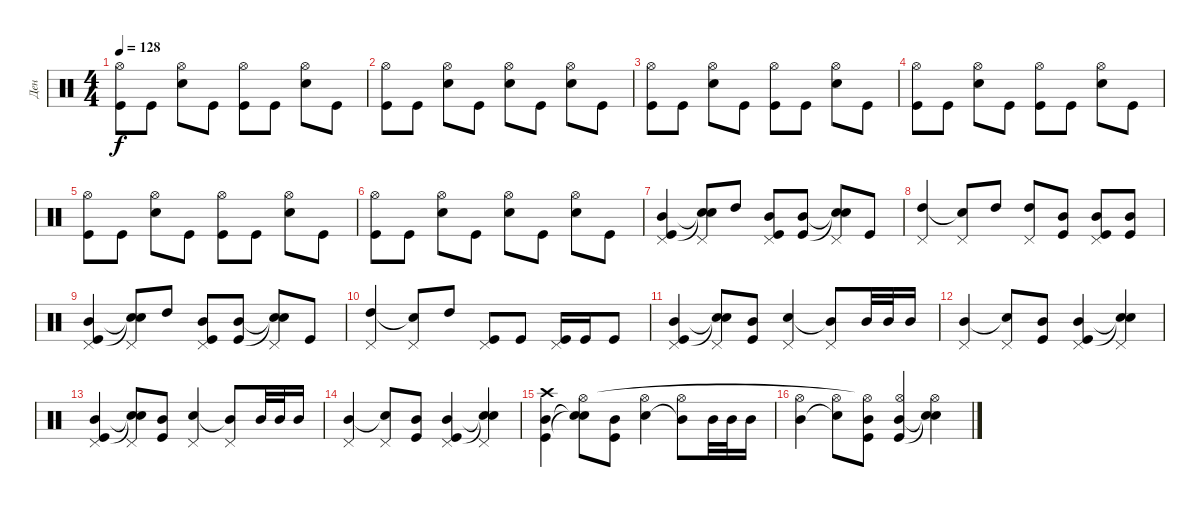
\track ("Ден" "Ден") {instrument percussion}
\staff
\articulation defaults
\ts (4 4)
\tempo 128
\clef neutral
\ks c
("Kick (hit)" "Hi-Hat (open)").8{dy f} "Kick (hit)".8 ("Snare (hit) 2" "Hi-Hat (open)").8 "Kick (hit)".8 ("Kick (hit)" "Hi-Hat (open)").8 "Kick (hit)".8 ("Snare (hit) 2" "Hi-Hat (open)").8 "Kick (hit)".8 |
("Kick (hit)" "Hi-Hat (open)").8 "Kick (hit)".8 ("Snare (hit) 2" "Hi-Hat (open)").8 "Kick (hit)".8 ("Snare (hit) 2" "Hi-Hat (open)").8 "Kick (hit)".8 ("Snare (hit) 2" "Hi-Hat (open)").8 "Kick (hit)".8 |
("Kick (hit)" "Hi-Hat (open)").8 "Kick (hit)".8 ("Snare (hit) 2" "Hi-Hat (open)").8 "Kick (hit)".8 ("Kick (hit)" "Hi-Hat (open)").8 "Kick (hit)".8 ("Snare (hit) 2" "Hi-Hat (open)").8 "Kick (hit)".8 |
("Kick (hit)" "Hi-Hat (open)").8 "Kick (hit)".8 ("Snare (hit) 2" "Hi-Hat (open)").8 "Kick (hit)".8 ("Kick (hit)" "Hi-Hat (open)").8 "Kick (hit)".8 ("Snare (hit) 2" "Hi-Hat (open)").8 "Kick (hit)".8 |
("Kick (hit)" "Hi-Hat (open)").8 "Kick (hit)".8 ("Snare (hit) 2" "Hi-Hat (open)").8 "Kick (hit)".8 ("Kick (hit)" "Hi-Hat (open)").8 "Kick (hit)".8 ("Snare (hit) 2" "Hi-Hat (open)").8 "Kick (hit)".8 |
("Kick (hit)" "Hi-Hat (open)").8 "Kick (hit)".8 ("Snare (hit) 2" "Hi-Hat (open)").8 "Kick (hit)".8 ("Snare (hit) 2" "Hi-Hat (open)").8 "Kick (hit)".8 ("Snare (hit) 2" "Hi-Hat (open)").8 "Kick (hit)".8 |
("Kick (hit)" "Mid Tom (hit)" "Pedal Hi-Hat (hit)").4 ("Snare (hit)"{t} "Snare (hit)"{t} "Pedal Hi-Hat (hit)").8 "High Tom (hit)".8 ("Kick (hit)" "Mid Tom (hit)" "Pedal Hi-Hat (hit)").8 ("Kick (hit)" "Mid Tom (hit)").8 ("Snare (hit)"{t} "Snare (hit)"{t} "Pedal Hi-Hat (hit)").8 "Kick (hit)".8 |
("High Tom (hit)" "Pedal Hi-Hat (hit)").4 ("Snare (hit)"{t} "Pedal Hi-Hat (hit)").8 "High Tom (hit)".8 ("High Tom (hit)" "Pedal Hi-Hat (hit)").8 ("Mid Tom (hit)" "Kick (hit)").8 ("Mid Tom (hit)" "Kick (hit)" "Pedal Hi-Hat (hit)").8 ("Mid Tom (hit)" "Kick (hit)").8 |
("Kick (hit)" "Mid Tom (hit)" "Pedal Hi-Hat (hit)").4 ("Snare (hit)"{t} "Snare (hit)"{t} "Pedal Hi-Hat (hit)").8 "High Tom (hit)".8 ("Kick (hit)" "Mid Tom (hit)" "Pedal Hi-Hat (hit)").8 ("Kick (hit)" "Mid Tom (hit)").8 ("Snare (hit)"{t} "Snare (hit)"{t} "Pedal Hi-Hat (hit)").8 "Kick (hit)".8 |
("High Tom (hit)" "Pedal Hi-Hat (hit)").4 ("Snare (hit)"{t} "Pedal Hi-Hat (hit)").8 "High Tom (hit)".8 ("Kick (hit)" "Pedal Hi-Hat (hit)").8 "Kick (hit)".8 ("Kick (hit)" "Pedal Hi-Hat (hit)").16 "Kick (hit)".16 "Kick (hit)".8 |
("Kick (hit)" "Mid Tom (hit)" "Pedal Hi-Hat (hit)").4 ("Snare (hit)"{t} "Snare (hit)"{t} "Pedal Hi-Hat (hit)").8 ("Mid Tom (hit)" "Kick (hit)").8 ("Snare (hit) 2" "Pedal Hi-Hat (hit)").4 ("Mid Tom (hit)"{t} "Pedal Hi-Hat (hit)").8 "Mid Tom (hit)".32 "Mid Tom (hit)".32 "Mid Tom (hit)".16 |
("Mid Tom (hit)" "Pedal Hi-Hat (hit)").4 ("Snare (hit)"{t} "Pedal Hi-Hat (hit)").8 ("Mid Tom (hit)" "Kick (hit)").8 ("Kick (hit)" "Mid Tom (hit)" "Pedal Hi-Hat (hit)").4 ("Snare (hit)"{t} "Snare (hit)"{t} "Pedal Hi-Hat (hit)").4 |
("Kick (hit)" "Mid Tom (hit)" "Pedal Hi-Hat (hit)").4 ("Snare (hit)"{t} "Snare (hit)"{t} "Pedal Hi-Hat (hit)").8 ("Mid Tom (hit)" "Kick (hit)").8 ("Snare (hit) 2" "Pedal Hi-Hat (hit)").4 ("Mid Tom (hit)"{t} "Pedal Hi-Hat (hit)").8 "Mid Tom (hit)".32 "Mid Tom (hit)".32 "Mid Tom (hit)".16 |
("Mid Tom (hit)" "Pedal Hi-Hat (hit)").4 ("Snare (hit)"{t} "Pedal Hi-Hat (hit)").8 ("Mid Tom (hit)" "Kick (hit)").8 ("Kick (hit)" "Mid Tom (hit)" "Pedal Hi-Hat (hit)").4 ("Snare (hit)"{t} "Snare (hit)"{t} "Pedal Hi-Hat (hit)").4 |
("Kick (hit)" "Mid Tom (hit)" "Crash high (hit)").4 ("Snare (hit)"{t} "Snare (hit)"{t} "Hi-Hat (open)").8 ("Mid Tom (hit)" "Kick (hit)").8 ("Snare (hit) 2" "Hi-Hat (open)").4 ("Mid Tom (hit)"{t} "Hi-Hat (open)").8 "Mid Tom (hit)".32 "Mid Tom (hit)".32 "Mid Tom (hit)".16 |
("Mid Tom (hit)" "Hi-Hat (open)").4 ("Snare (hit)"{t} "Hi-Hat (open)").8 ("Mid Tom (hit)" "Kick (hit)" "Hi-Hat (open)"{t}).8 ("Kick (hit)" "Mid Tom (hit)" "Hi-Hat (open)").4 ("Snare (hit)"{t} "Snare (hit)"{t} "Hi-Hat (open)").4
